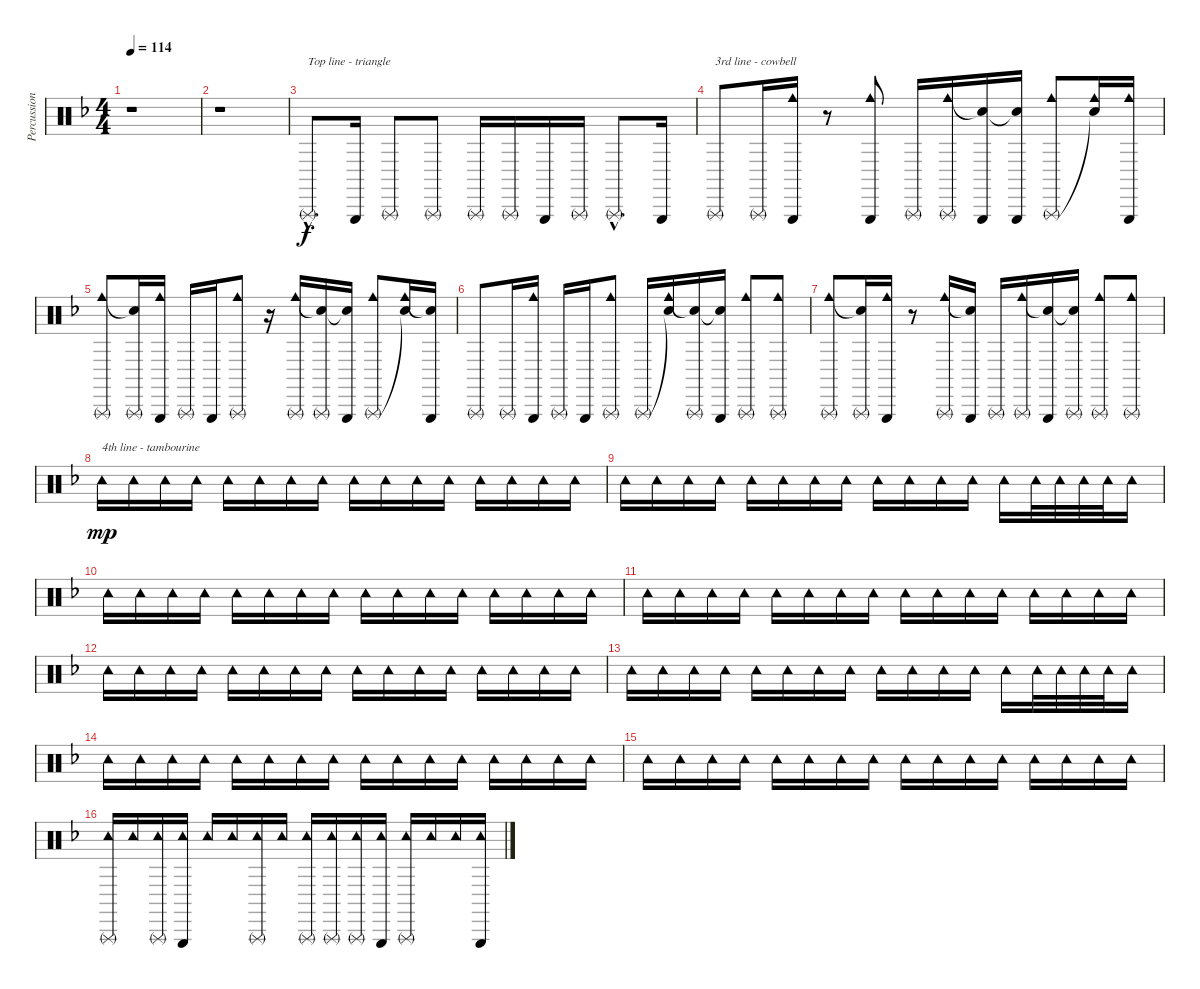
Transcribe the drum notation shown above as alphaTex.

\track ("Percussion" "Percussion") {instrument percussion}
\staff {score}
\articulation defaults
\ts (4 4)
\tempo 114
\clef neutral
\ks f
r.1{dy f} |
r.1 |
"Triangle (rnute)"{hac}.8{d txt "Top line - triangle"} "Triangle (hit)".16 "Triangle (rnute)".8 "Triangle (rnute)".8 "Triangle (rnute)".16 "Triangle (rnute)".16 "Triangle (hit)".16 "Triangle (rnute)".16 "Triangle (rnute)"{hac}.8{d} "Triangle (hit)".16 |
"Triangle (rnute)".8{txt "3rd line - cowbell"} "Triangle (rnute)".16 ("Triangle (hit)" "Cowbell medium (hit)").16 r.8 ("Triangle (hit)" "Cowbell medium (hit)").8 "Triangle (rnute)".16 ("Triangle (rnute)" "Cowbell medium (hit)").16 ("Triangle (hit)" "Snare (hit)"{t}).16 ("Triangle (hit)" "Snare (hit)"{t}).16 ("Triangle (rnute)" "Cowbell medium (hit)").8 ("Snare (hit)"{t} "Cowbell medium (hit)").16 ("Triangle (hit)" "Cowbell medium (hit)").16 |
("Triangle (rnute)" "Cowbell medium (hit)").8 ("Triangle (rnute)" "Snare (hit)"{t}).16 ("Triangle (hit)" "Cowbell medium (hit)").16 "Triangle (rnute)".16 "Triangle (hit)".16 ("Triangle (rnute)" "Cowbell medium (hit)").8 r.16 ("Triangle (rnute)" "Cowbell medium (hit)").16 ("Triangle (rnute)" "Snare (hit)"{t}).16 ("Triangle (hit)" "Snare (hit)"{t}).16 ("Triangle (rnute)" "Cowbell medium (hit)").8 ("Snare (hit)"{t} "Cowbell medium (hit)").16 ("Triangle (hit)" "Snare (hit)"{t}).16 |
"Triangle (rnute)".8 "Triangle (rnute)".16 ("Triangle (hit)" "Cowbell medium (hit)").16 "Triangle (rnute)".16 "Triangle (hit)".16 ("Triangle (rnute)" "Cowbell medium (hit)").8 "Triangle (rnute)".16 ("Snare (hit)"{t} "Cowbell medium (hit)").16 ("Triangle (rnute)" "Snare (hit)"{t}).16 ("Triangle (hit)" "Snare (hit)"{t}).16 ("Triangle (rnute)" "Cowbell medium (hit)").8 ("Triangle (rnute)" "Cowbell medium (hit)").8 |
("Triangle (rnute)" "Cowbell medium (hit)").8 ("Triangle (rnute)" "Snare (hit)"{t}).16 ("Triangle (hit)" "Cowbell medium (hit)").16 r.8 ("Triangle (rnute)" "Cowbell medium (hit)").16 ("Triangle (hit)" "Snare (hit)"{t}).16 "Triangle (rnute)".16 ("Triangle (rnute)" "Cowbell medium (hit)").16 ("Triangle (hit)" "Snare (hit)"{t}).16 ("Triangle (rnute)" "Snare (hit)"{t}).16 ("Triangle (rnute)" "Cowbell medium (hit)").8 ("Triangle (rnute)" "Cowbell medium (hit)").8 |
"Tambourine (hit)".16{txt "4th line - tambourine" dy mp} "Tambourine (hit)".16 "Tambourine (hit)".16 "Tambourine (hit)".16 "Tambourine (hit)".16 "Tambourine (hit)".16 "Tambourine (hit)".16 "Tambourine (hit)".16 "Tambourine (hit)".16 "Tambourine (hit)".16 "Tambourine (hit)".16 "Tambourine (hit)".16 "Tambourine (hit)".16 "Tambourine (hit)".16 "Tambourine (hit)".16 "Tambourine (hit)".16 |
"Tambourine (hit)".16 "Tambourine (hit)".16 "Tambourine (hit)".16 "Tambourine (hit)".16 "Tambourine (hit)".16 "Tambourine (hit)".16 "Tambourine (hit)".16 "Tambourine (hit)".16 "Tambourine (hit)".16 "Tambourine (hit)".16 "Tambourine (hit)".16 "Tambourine (hit)".16 "Tambourine (hit)".16 "Tambourine (hit)".32 "Tambourine (hit)".32 "Tambourine (hit)".32 "Tambourine (hit)".32 "Tambourine (hit)".16 |
"Tambourine (hit)".16 "Tambourine (hit)".16 "Tambourine (hit)".16 "Tambourine (hit)".16 "Tambourine (hit)".16 "Tambourine (hit)".16 "Tambourine (hit)".16 "Tambourine (hit)".16 "Tambourine (hit)".16 "Tambourine (hit)".16 "Tambourine (hit)".16 "Tambourine (hit)".16 "Tambourine (hit)".16 "Tambourine (hit)".16 "Tambourine (hit)".16 "Tambourine (hit)".16 |
"Tambourine (hit)".16 "Tambourine (hit)".16 "Tambourine (hit)".16 "Tambourine (hit)".16 "Tambourine (hit)".16 "Tambourine (hit)".16 "Tambourine (hit)".16 "Tambourine (hit)".16 "Tambourine (hit)".16 "Tambourine (hit)".16 "Tambourine (hit)".16 "Tambourine (hit)".16 "Tambourine (hit)".16 "Tambourine (hit)".16 "Tambourine (hit)".16 "Tambourine (hit)".16 |
"Tambourine (hit)".16 "Tambourine (hit)".16 "Tambourine (hit)".16 "Tambourine (hit)".16 "Tambourine (hit)".16 "Tambourine (hit)".16 "Tambourine (hit)".16 "Tambourine (hit)".16 "Tambourine (hit)".16 "Tambourine (hit)".16 "Tambourine (hit)".16 "Tambourine (hit)".16 "Tambourine (hit)".16 "Tambourine (hit)".16 "Tambourine (hit)".16 "Tambourine (hit)".16 |
"Tambourine (hit)".16 "Tambourine (hit)".16 "Tambourine (hit)".16 "Tambourine (hit)".16 "Tambourine (hit)".16 "Tambourine (hit)".16 "Tambourine (hit)".16 "Tambourine (hit)".16 "Tambourine (hit)".16 "Tambourine (hit)".16 "Tambourine (hit)".16 "Tambourine (hit)".16 "Tambourine (hit)".16 "Tambourine (hit)".32 "Tambourine (hit)".32 "Tambourine (hit)".32 "Tambourine (hit)".32 "Tambourine (hit)".16 |
"Tambourine (hit)".16 "Tambourine (hit)".16 "Tambourine (hit)".16 "Tambourine (hit)".16 "Tambourine (hit)".16 "Tambourine (hit)".16 "Tambourine (hit)".16 "Tambourine (hit)".16 "Tambourine (hit)".16 "Tambourine (hit)".16 "Tambourine (hit)".16 "Tambourine (hit)".16 "Tambourine (hit)".16 "Tambourine (hit)".16 "Tambourine (hit)".16 "Tambourine (hit)".16 |
"Tambourine (hit)".16 "Tambourine (hit)".16 "Tambourine (hit)".16 "Tambourine (hit)".16 "Tambourine (hit)".16 "Tambourine (hit)".16 "Tambourine (hit)".16 "Tambourine (hit)".16 "Tambourine (hit)".16 "Tambourine (hit)".16 "Tambourine (hit)".16 "Tambourine (hit)".16 "Tambourine (hit)".16 "Tambourine (hit)".16 "Tambourine (hit)".16 "Tambourine (hit)".16 |
("Triangle (rnute)" "Tambourine (hit)").16 "Tambourine (hit)".16 ("Triangle (rnute)" "Tambourine (hit)").16 ("Triangle (hit)" "Tambourine (hit)").16 "Tambourine (hit)".16 "Tambourine (hit)".16 ("Triangle (rnute)" "Tambourine (hit)").16 "Tambourine (hit)".16 ("Triangle (rnute)" "Tambourine (hit)").16 ("Triangle (rnute)" "Tambourine (hit)").16 ("Triangle (rnute)" "Tambourine (hit)").16 ("Triangle (hit)" "Tambourine (hit)").16 ("Triangle (rnute)" "Tambourine (hit)").16 "Tambourine (hit)".16 "Tambourine (hit)".16 ("Triangle (hit)" "Tambourine (hit)").16
